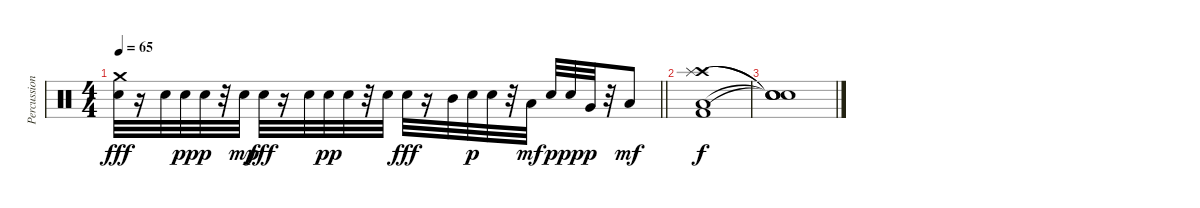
\track ("Percussions" "Percussion") {instrument percussion}
\staff {score}
\articulation defaults
\ts (4 4)
\tempo 65
\clef neutral
\barLineRight lightlight
\ks c
("Crash medium (hit)" "Electric Snare (hit)").32{dy fff} r.16 "Electric Snare (hit)".32 "Electric Snare (hit)".32{dy pp} "Electric Snare (hit)".32{dy p} r.32 "Electric Snare (hit)".32{dy mp} "Electric Snare (hit)".32{dy fff} r.16 "Electric Snare (hit)".32 "Electric Snare (hit)".32{dy pp} "Electric Snare (hit)".32 r.32 "Electric Snare (hit)".32 "Electric Snare (hit)".32{dy fff} r.16 "Mid Tom (hit)".32 "Electric Snare (hit)".32{dy p} "Electric Snare (hit)".32 r.32 "Low Tom (hit)".32{dy mf} "Electric Snare (hit)".32{dy p} "Electric Snare (hit)".32{dy pp} "Very Low Tom (hit)".32{dy p} r.32 "Low Floor Tom (hit)".8{dy mf} |
("Low Floor Tom (hit)" "Kick (hit) 2" "Crash high (hit)" "Splash (hit)").1{dy f} |
("Snare (hit)"{t} "Snare (hit)"{t} "Snare (hit)"{t} "Snare (hit)"{t}).1
